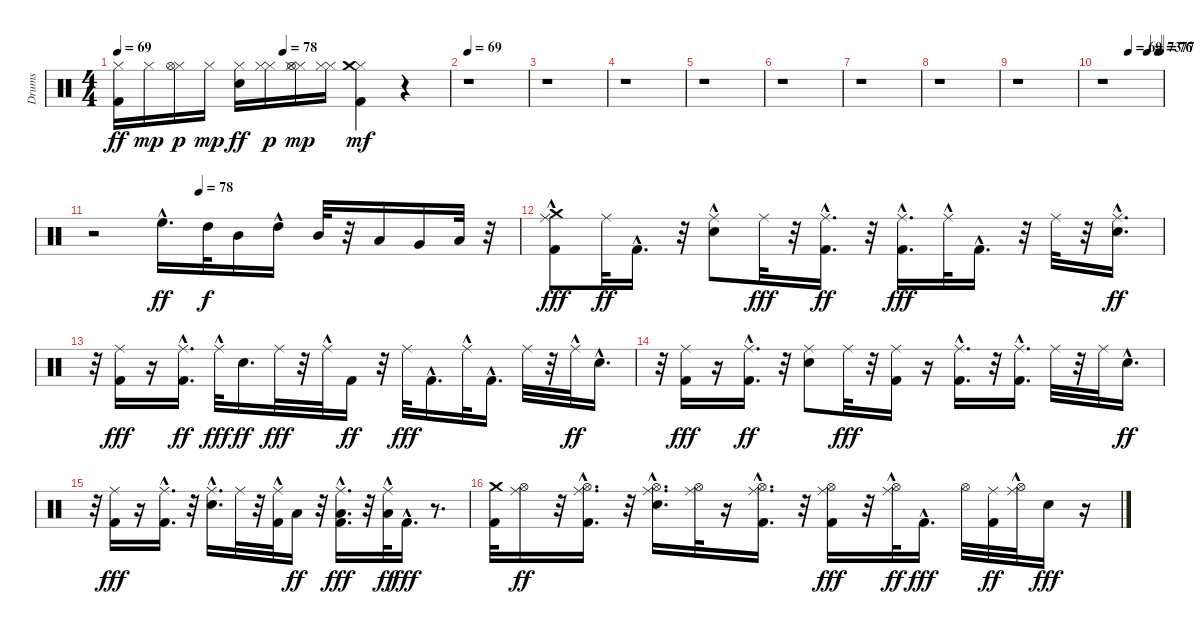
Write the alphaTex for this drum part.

\track ("Drums" "Drums") {instrument percussion}
\staff {score}
\articulation defaults
\ts (4 4)
\tempo 69
\tempo (78 0.5)
\clef neutral
\ks c
("Kick (hit) 2" "Hi-Hat (closed)").16{dy ff} "Hi-Hat (closed)".16{dy mp} ("Hi-Hat (closed)" "Hi-Hat (open)").16{dy p} "Hi-Hat (closed)".16{dy mp} ("Hi-Hat (closed)" "Snare (hit) 2").16{dy ff} ("Hi-Hat (closed)" "Hi-Hat (closed)").16{dy p} ("Hi-Hat (closed)" "Hi-Hat (closed)" "Hi-Hat (open)").16{dy mp} ("Hi-Hat (closed)" "Hi-Hat (closed)").16 ("Hi-Hat (closed)" "Kick (hit) 2" "Crash medium (hit)").4{dy mf} r.4 |
\tempo 69
r.1 |
r.1 |
r.1 |
r.1 |
r.1 |
r.1 |
r.1 |
r.1 |
\tempo (69 0.4375)
\tempo (73 0.75)
\tempo (76 0.9375)
\tempo (77 0.96875)
r.1 |
\tempo (78 0.25)
r.2 "High Floor Tom (hit)"{hac}.16{d dy ff} "High Tom (hit)".32{dy f} "Mid Tom (hit)".16 "High Tom (hit)"{hac}.16 "Mid Tom (hit)".32 r.32 "Low Tom (hit)".16 "Very Low Tom (hit)".16 "Low Floor Tom (hit)".32 r.32 |
("Kick (hit) 2" "Crash medium (hit)"{hac} "Ride (middle)").8{dy fff} "Ride (middle)".32{dy ff} "Kick (hit) 2"{hac}.16{d} r.32 ("Ride (middle)"{hac} "Snare (hit) 2").8 "Ride (middle)".32{dy fff} r.32 ("Ride (middle)"{hac} "Kick (hit) 2").16{d dy ff} r.32 ("Ride (middle)"{hac} "Kick (hit) 2"{hac}).16{d dy fff} "Ride (middle)"{hac}.32 "Kick (hit) 2"{hac}.16{d} r.32 "Ride (middle)".32 r.32 ("Ride (middle)"{hac} "Snare (hit) 2"{hac}).16{d dy ff} |
r.32 ("Kick (hit) 2" "Ride (middle)").16{dy fff} r.16 ("Ride (middle)" "Kick (hit) 2"{hac}).16{d dy ff} "Ride (middle)"{hac}.32{dy fff} "Snare (hit) 2".16{d dy ff} "Ride (middle)".32{dy fff} r.32 "Ride (middle)"{hac}.32 "Kick (hit) 2".16{dy ff} r.32 "Ride (middle)".32{dy fff} "Kick (hit) 2"{hac}.16{d} "Ride (middle)"{hac}.32 "Kick (hit) 2"{hac}.16{d} "Ride (middle)".32 r.32 "Ride (middle)"{hac}.32{dy ff} "Snare (hit) 2"{hac}.16{d} |
r.32 ("Kick (hit) 2" "Ride (middle)").16{dy fff} r.16 ("Ride (middle)" "Kick (hit) 2"{hac}).16{d dy ff} r.32 ("Ride (middle)" "Snare (hit) 2").8 "Ride (middle)".32{dy fff} r.32 ("Kick (hit) 2" "Ride (middle)").16 r.16 ("Kick (hit) 2"{hac} "Ride (middle)").16{d} r.32 ("Ride (middle)" "Kick (hit) 2"{hac}).16{d} "Ride (middle)".32 r.32 "Ride (middle)".32 "Snare (hit) 2"{hac}.16{d dy ff} |
r.32 ("Ride (middle)" "Kick (hit) 2").16{dy fff} r.16 ("Kick (hit) 2"{hac} "Ride (middle)").16{d} r.32 ("Snare (hit) 2"{hac} "Ride (middle)").16{d} "Ride (middle)".32 r.32 ("Ride (middle)"{hac} "Kick (hit) 2").32 "Low Tom (hit)".16{dy ff} r.32 ("Ride (middle)" "Low Tom (hit)" "Kick (hit) 2"{hac}).16{d dy fff} r.32 ("Ride (middle)"{hac} "Low Tom (hit)").32{dy ff} "Kick (hit) 2"{hac}.16{d dy fff} r.8{d} |
("Kick (hit) 2" "Crash medium (hit)").32 ("Ride (middle)" "Hi-Hat (open)").16{dy ff} r.32 ("Kick (hit) 2"{hac} "Ride (middle)" "Hi-Hat (open)").16{d} r.32 ("Hi-Hat (open)"{hac} "Ride (middle)"{hac} "Snare (hit) 2").16{d} ("Ride (middle)" "Hi-Hat (open)").32 r.16 ("Hi-Hat (open)"{hac} "Ride (middle)"{hac} "Kick (hit) 2").16{d} r.32 ("Hi-Hat (open)" "Ride (middle)" "Kick (hit) 2").16{dy fff} r.32 ("Hi-Hat (open)"{hac} "Ride (middle)"{hac}).32{dy ff} "Kick (hit) 2"{hac}.16{d dy fff} "Hi-Hat (open)".32 ("Ride (middle)" "Kick (hit) 2").32{dy ff} ("Ride (middle)"{hac} "Hi-Hat (open)"{hac}).32 "Snare (hit) 2".16{dy fff} r.16
